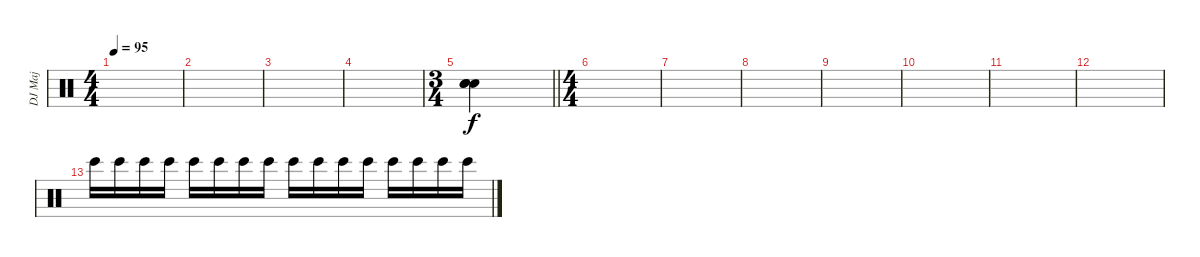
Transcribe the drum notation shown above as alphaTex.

\track ("DJ Maj" "DJ Maj") {instrument percussion}
\staff {score}
\articulation defaults
\ts (4 4)
\tempo 95
\clef neutral
\ks c
|
|
|
|
\ts (3 4)
\barLineRight lightlight
("Snare (hit)" "Snare (hit)" "Snare (hit)").4 |
\ts (4 4)
|
|
|
|
|
|
|
"Bongo High (hit)".16 "Bongo High (hit)".16 "Bongo High (hit)".16 "Bongo High (hit)".16 "Bongo High (hit)".16 "Bongo High (hit)".16 "Bongo High (hit)".16 "Bongo High (hit)".16 "Bongo High (hit)".16 "Bongo High (hit)".16 "Bongo High (hit)".16 "Bongo High (hit)".16 "Bongo High (hit)".16 "Bongo High (hit)".16 "Bongo High (hit)".16 "Bongo High (hit)".16
